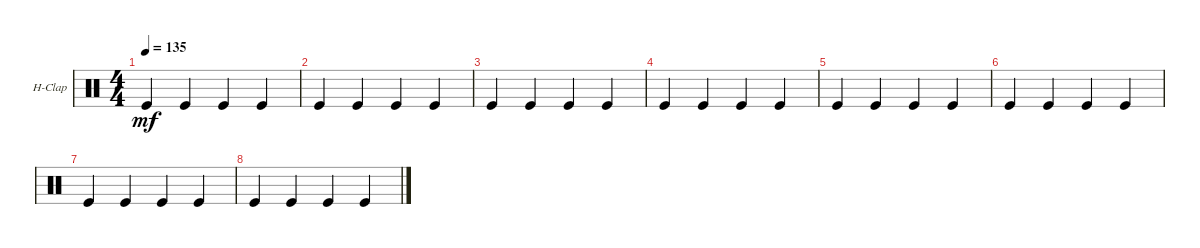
\bracketExtendMode groupsimilarinstruments
\firstSystemTrackNameOrientation horizontal
\otherSystemsTrackNameOrientation horizontal
\track ("Hand Clap" "H-Clap") {instrument percussion}
\staff {score}
\articulation defaults
\ts (4 4)
\tempo 135
\clef neutral
\scale
0.333333
\ks c "Kick (hit)".4{dy mf} "Kick (hit)".4 "Kick (hit)".4 "Kick (hit)".4
|
\scale
0.333333 "Kick (hit)".4 "Kick (hit)".4 "Kick (hit)".4 "Kick (hit)".4 |
\scale
0.333333 "Kick (hit)".4 "Kick (hit)".4 "Kick (hit)".4 "Kick (hit)".4 |
\scale
0.333333 "Kick (hit)".4 "Kick (hit)".4 "Kick (hit)".4 "Kick (hit)".4 |
\scale
0.333333 "Kick (hit)".4 "Kick (hit)".4 "Kick (hit)".4 "Kick (hit)".4 |
\scale
0.333333 "Kick (hit)".4 "Kick (hit)".4 "Kick (hit)".4 "Kick (hit)".4 |
\scale
0.333333 "Kick (hit)".4 "Kick (hit)".4 "Kick (hit)".4 "Kick (hit)".4 |
\scale
0.333333 "Kick (hit)".4 "Kick (hit)".4 "Kick (hit)".4 "Kick (hit)".4 |
\scale
0.333333 |
\scale
0.333333 |
\scale
0.333333 |
\scale
0.333333 |
\scale
0.333333 |
\scale
0.333333 |
\scale
0.333333 |
\scale
0.333333
